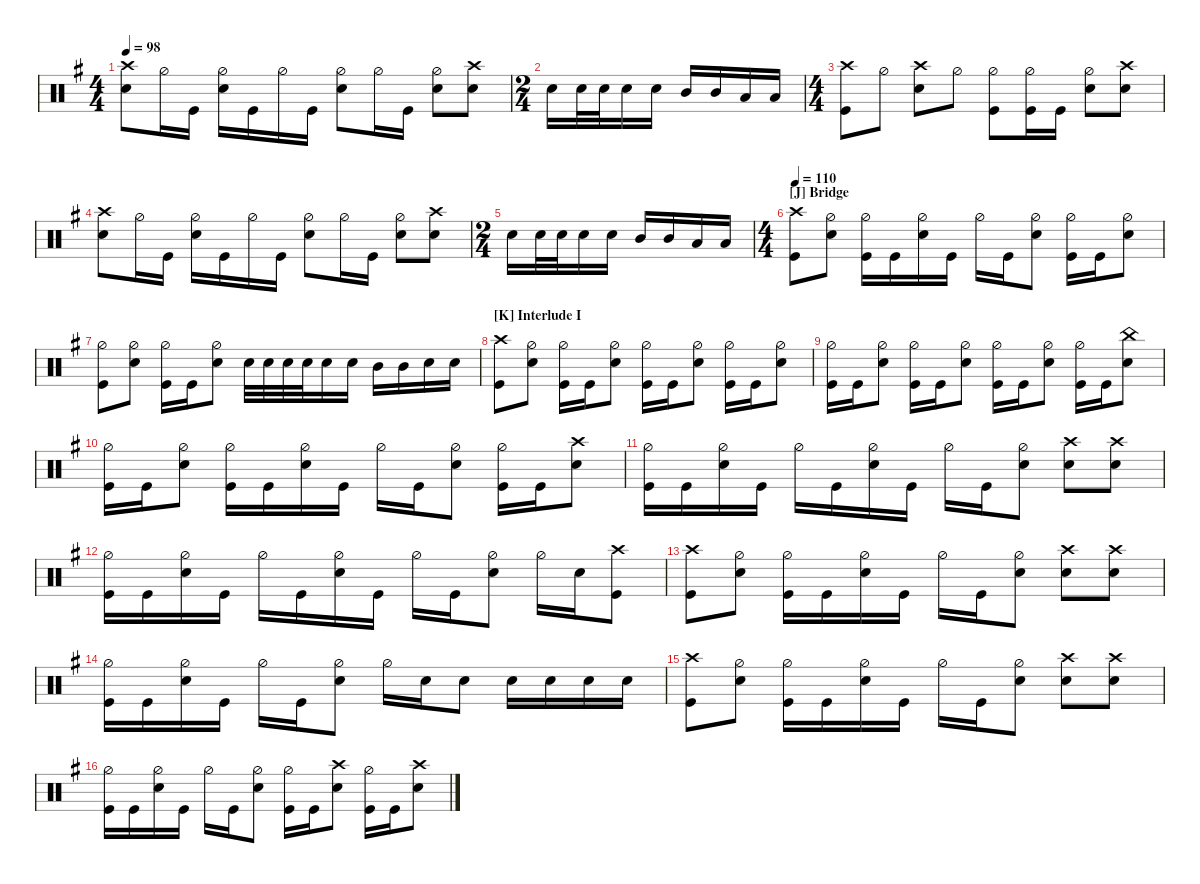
\defaultSystemsLayout 4
\hideDynamics
\bracketExtendMode nobrackets
\otherSystemsTrackNameOrientation horizontal
\track ("Drums" " ") {instrument percussion}
\staff
\articulation defaults
\ts (4 4)
\tempo 98
\clef neutral
\ks eminor
("Snare (hit) 2"{acc forcenatural} "Crash high (hit)"{acc forcenatural}).8{dy f} "Hi-Hat (half)"{acc forcenatural}.16 "Kick (hit)"{acc forcenatural}.16 ("Snare (hit) 2"{acc forcenatural} "Hi-Hat (half)"{acc forcenatural}).16 "Kick (hit)"{acc forcenatural}.16 "Hi-Hat (half)"{acc forcenatural}.16 "Kick (hit)"{acc forcenatural}.16 ("Snare (hit) 2"{acc forcenatural} "Hi-Hat (half)"{acc forcenatural}).8 "Hi-Hat (half)"{acc forcenatural}.16 "Kick (hit)"{acc forcenatural}.16 ("Snare (hit) 2"{acc forcenatural} "Hi-Hat (half)"{acc forcenatural}).8 ("Snare (hit) 2"{acc forcenatural} "Crash high (hit)"{acc forcenatural}).8 |
\ts (2 4)
\beaming (8 2 2)
"Snare (hit) 2"{acc forcenatural}.16 "Snare (hit) 2"{acc forcenatural}.32 "Snare (hit) 2"{acc forcenatural}.32 "Snare (hit) 2"{acc forcenatural}.16 "Snare (hit) 2"{acc forcenatural}.16 "Mid Tom (hit)"{acc forcenatural}.16{dy fff} "Mid Tom (hit)"{acc forcenatural}.16 "Low Tom (hit)"{acc forcenatural}.16 "Low Tom (hit)"{acc forcenatural}.16 |
\ts (4 4)
\beaming (8 2 2 2 2)
("Kick (hit)"{acc forcenatural} "Crash high (hit)"{acc forcenatural}).8{dy f} "Hi-Hat (half)"{acc forcenatural}.8 ("Snare (hit) 2"{acc forcenatural} "Crash high (hit)"{acc forcenatural}).8 "Hi-Hat (half)"{acc forcenatural}.8 ("Hi-Hat (half)"{acc forcenatural} "Kick (hit)"{acc forcenatural}).8 ("Hi-Hat (half)"{acc forcenatural} "Kick (hit)"{acc forcenatural}).16 "Kick (hit)"{acc forcenatural}.16 ("Snare (hit) 2"{acc forcenatural} "Hi-Hat (half)"{acc forcenatural}).8 ("Snare (hit) 2"{acc forcenatural} "Crash high (hit)"{acc forcenatural}).8 |
("Snare (hit) 2"{acc forcenatural} "Crash high (hit)"{acc forcenatural}).8 "Hi-Hat (half)"{acc forcenatural}.16 "Kick (hit)"{acc forcenatural}.16 ("Snare (hit) 2"{acc forcenatural} "Hi-Hat (half)"{acc forcenatural}).16 "Kick (hit)"{acc forcenatural}.16 "Hi-Hat (half)"{acc forcenatural}.16 "Kick (hit)"{acc forcenatural}.16 ("Snare (hit) 2"{acc forcenatural} "Hi-Hat (half)"{acc forcenatural}).8 "Hi-Hat (half)"{acc forcenatural}.16 "Kick (hit)"{acc forcenatural}.16 ("Snare (hit) 2"{acc forcenatural} "Hi-Hat (half)"{acc forcenatural}).8 ("Snare (hit) 2"{acc forcenatural} "Crash high (hit)"{acc forcenatural}).8 |
\ts (2 4)
\beaming (8 2 2)
"Snare (hit) 2"{acc forcenatural}.16 "Snare (hit) 2"{acc forcenatural}.32 "Snare (hit) 2"{acc forcenatural}.32 "Snare (hit) 2"{acc forcenatural}.16 "Snare (hit) 2"{acc forcenatural}.16 "Mid Tom (hit)"{acc forcenatural}.16{dy fff} "Mid Tom (hit)"{acc forcenatural}.16 "Low Tom (hit)"{acc forcenatural}.16 "Low Tom (hit)"{acc forcenatural}.16 |
\ts (4 4)
\beaming (8 2 2 2 2)
\section ("J" "Bridge")
\tempo 110
("Kick (hit)"{acc forcenatural} "Crash high (hit)"{acc forcenatural}).8{dy f} ("Hi-Hat (half)"{acc forcenatural} "Snare (hit) 2"{acc forcenatural}).8 ("Hi-Hat (half)"{acc forcenatural} "Kick (hit)"{acc forcenatural}).16 "Kick (hit)"{acc forcenatural}.16 ("Hi-Hat (half)"{acc forcenatural} "Snare (hit) 2"{acc forcenatural}).16 "Kick (hit)"{acc forcenatural}.16 "Hi-Hat (half)"{acc forcenatural}.16 "Kick (hit)"{acc forcenatural}.16 ("Hi-Hat (half)"{acc forcenatural} "Snare (hit) 2"{acc forcenatural}).8 ("Hi-Hat (half)"{acc forcenatural} "Kick (hit)"{acc forcenatural}).16 "Kick (hit)"{acc forcenatural}.16 ("Hi-Hat (half)"{acc forcenatural} "Snare (hit) 2"{acc forcenatural}).8 |
("Kick (hit)"{acc forcenatural} "Hi-Hat (half)"{acc forcenatural}).8 ("Hi-Hat (half)"{acc forcenatural} "Snare (hit) 2"{acc forcenatural}).8 ("Hi-Hat (half)"{acc forcenatural} "Kick (hit)"{acc forcenatural}).16 "Kick (hit)"{acc forcenatural}.16 ("Hi-Hat (half)"{acc forcenatural} "Snare (hit) 2"{acc forcenatural}).8 "Snare (hit) 2"{acc forcenatural}.32{dy mp} "Snare (hit) 2"{acc forcenatural}.32{dy mf} "Snare (hit) 2"{acc forcenatural}.32 "Snare (hit) 2"{acc forcenatural}.32 "Snare (hit) 2"{acc forcenatural}.16{dy f} "Snare (hit) 2"{acc forcenatural}.16 "Mid Tom (hit)"{acc forcenatural}.16{dy ff} "Mid Tom (hit)"{acc forcenatural}.16 "Snare (hit) 2"{acc forcenatural}.16{dy f} "Snare (hit) 2"{acc forcenatural}.16 |
\section ("K" "Interlude I")
("Kick (hit)"{acc forcenatural} "Crash high (hit)"{acc forcenatural}).8 ("Hi-Hat (half)"{acc forcenatural} "Snare (hit) 2"{acc forcenatural}).8 ("Hi-Hat (half)"{acc forcenatural} "Kick (hit)"{acc forcenatural}).16 "Kick (hit)"{acc forcenatural}.16 ("Hi-Hat (half)"{acc forcenatural} "Snare (hit) 2"{acc forcenatural}).8 ("Hi-Hat (half)"{acc forcenatural} "Kick (hit)"{acc forcenatural}).16 "Kick (hit)"{acc forcenatural}.16 ("Hi-Hat (half)"{acc forcenatural} "Snare (hit) 2"{acc forcenatural}).8 ("Hi-Hat (half)"{acc forcenatural} "Kick (hit)"{acc forcenatural}).16 "Kick (hit)"{acc forcenatural}.16 ("Hi-Hat (half)"{acc forcenatural} "Snare (hit) 2"{acc forcenatural}).8 |
("Hi-Hat (half)"{acc forcenatural} "Kick (hit)"{acc forcenatural}).16 "Kick (hit)"{acc forcenatural}.16 ("Hi-Hat (half)"{acc forcenatural} "Snare (hit) 2"{acc forcenatural}).8 ("Hi-Hat (half)"{acc forcenatural} "Kick (hit)"{acc forcenatural}).16 "Kick (hit)"{acc forcenatural}.16 ("Hi-Hat (half)"{acc forcenatural} "Snare (hit) 2"{acc forcenatural}).8 ("Hi-Hat (half)"{acc forcenatural} "Kick (hit)"{acc forcenatural}).16 "Kick (hit)"{acc forcenatural}.16 ("Hi-Hat (half)"{acc forcenatural} "Snare (hit) 2"{acc forcenatural}).8 ("Hi-Hat (half)"{acc forcenatural} "Kick (hit)"{acc forcenatural}).16 "Kick (hit)"{acc forcenatural}.16 ("Snare (hit) 2"{acc forcenatural} "China (hit)"{acc forcenatural}).8 |
("Hi-Hat (half)"{acc forcenatural} "Kick (hit)"{acc forcenatural}).16 "Kick (hit)"{acc forcenatural}.16 ("Hi-Hat (half)"{acc forcenatural} "Snare (hit) 2"{acc forcenatural}).8 ("Hi-Hat (half)"{acc forcenatural} "Kick (hit)"{acc forcenatural}).16 "Kick (hit)"{acc forcenatural}.16 ("Hi-Hat (half)"{acc forcenatural} "Snare (hit) 2"{acc forcenatural}).16 "Kick (hit)"{acc forcenatural}.16 "Hi-Hat (half)"{acc forcenatural}.16 "Kick (hit)"{acc forcenatural}.16 ("Hi-Hat (half)"{acc forcenatural} "Snare (hit) 2"{acc forcenatural}).8 ("Hi-Hat (half)"{acc forcenatural} "Kick (hit)"{acc forcenatural}).16 "Kick (hit)"{acc forcenatural}.16 ("Snare (hit) 2"{acc forcenatural} "Crash high (hit)"{acc forcenatural}).8 |
("Hi-Hat (half)"{acc forcenatural} "Kick (hit)"{acc forcenatural}).16 "Kick (hit)"{acc forcenatural}.16 ("Hi-Hat (half)"{acc forcenatural} "Snare (hit) 2"{acc forcenatural}).16 "Kick (hit)"{acc forcenatural}.16 "Hi-Hat (half)"{acc forcenatural}.16 "Kick (hit)"{acc forcenatural}.16 ("Hi-Hat (half)"{acc forcenatural} "Snare (hit) 2"{acc forcenatural}).16 "Kick (hit)"{acc forcenatural}.16 "Hi-Hat (half)"{acc forcenatural}.16 "Kick (hit)"{acc forcenatural}.16 ("Hi-Hat (half)"{acc forcenatural} "Snare (hit) 2"{acc forcenatural}).8 ("Snare (hit) 2"{acc forcenatural} "Crash high (hit)"{acc forcenatural}).8 ("Snare (hit) 2"{acc forcenatural} "Crash high (hit)"{acc forcenatural}).8 |
("Hi-Hat (half)"{acc forcenatural} "Kick (hit)"{acc forcenatural}).16 "Kick (hit)"{acc forcenatural}.16 ("Hi-Hat (half)"{acc forcenatural} "Snare (hit) 2"{acc forcenatural}).16 "Kick (hit)"{acc forcenatural}.16 "Hi-Hat (half)"{acc forcenatural}.16 "Kick (hit)"{acc forcenatural}.16 ("Hi-Hat (half)"{acc forcenatural} "Snare (hit) 2"{acc forcenatural}).16 "Kick (hit)"{acc forcenatural}.16 "Hi-Hat (half)"{acc forcenatural}.16 "Kick (hit)"{acc forcenatural}.16 ("Hi-Hat (half)"{acc forcenatural} "Snare (hit) 2"{acc forcenatural}).8 "Hi-Hat (half)"{acc forcenatural}.16 "Snare (hit) 2"{acc forcenatural}.16 ("Kick (hit)"{acc forcenatural} "Crash high (hit)"{acc forcenatural}).8 |
("Kick (hit)"{acc forcenatural} "Crash high (hit)"{acc forcenatural}).8 ("Hi-Hat (half)"{acc forcenatural} "Snare (hit) 2"{acc forcenatural}).8 ("Kick (hit)"{acc forcenatural} "Hi-Hat (half)"{acc forcenatural}).16 "Kick (hit)"{acc forcenatural}.16 ("Hi-Hat (half)"{acc forcenatural} "Snare (hit) 2"{acc forcenatural}).16 "Kick (hit)"{acc forcenatural}.16 "Hi-Hat (half)"{acc forcenatural}.16 "Kick (hit)"{acc forcenatural}.16 ("Hi-Hat (half)"{acc forcenatural} "Snare (hit) 2"{acc forcenatural}).8 ("Snare (hit) 2"{acc forcenatural} "Crash high (hit)"{acc forcenatural}).8 ("Snare (hit) 2"{acc forcenatural} "Crash high (hit)"{acc forcenatural}).8 |
("Hi-Hat (half)"{acc forcenatural} "Kick (hit)"{acc forcenatural}).16 "Kick (hit)"{acc forcenatural}.16 ("Hi-Hat (half)"{acc forcenatural} "Snare (hit) 2"{acc forcenatural}).16 "Kick (hit)"{acc forcenatural}.16 "Hi-Hat (half)"{acc forcenatural}.16 "Kick (hit)"{acc forcenatural}.16 ("Hi-Hat (half)"{acc forcenatural} "Snare (hit) 2"{acc forcenatural}).8 "Hi-Hat (half)"{acc forcenatural}.16 "Snare (hit) 2"{acc forcenatural}.16 "Snare (hit) 2"{acc forcenatural}.8 "Snare (hit) 2"{acc forcenatural}.16 "Snare (hit) 2"{acc forcenatural}.16 "Snare (hit) 2"{acc forcenatural}.16 "Snare (hit) 2"{acc forcenatural}.16 |
("Kick (hit)"{acc forcenatural} "Crash high (hit)"{acc forcenatural}).8 ("Hi-Hat (half)"{acc forcenatural} "Snare (hit) 2"{acc forcenatural}).8 ("Kick (hit)"{acc forcenatural} "Hi-Hat (half)"{acc forcenatural}).16 "Kick (hit)"{acc forcenatural}.16 ("Hi-Hat (half)"{acc forcenatural} "Snare (hit) 2"{acc forcenatural}).16 "Kick (hit)"{acc forcenatural}.16 "Hi-Hat (half)"{acc forcenatural}.16 "Kick (hit)"{acc forcenatural}.16 ("Hi-Hat (half)"{acc forcenatural} "Snare (hit) 2"{acc forcenatural}).8 ("Snare (hit) 2"{acc forcenatural} "Crash high (hit)"{acc forcenatural}).8 ("Snare (hit) 2"{acc forcenatural} "Crash high (hit)"{acc forcenatural}).8 |
("Hi-Hat (half)"{acc forcenatural} "Kick (hit)"{acc forcenatural}).16 "Kick (hit)"{acc forcenatural}.16 ("Hi-Hat (half)"{acc forcenatural} "Snare (hit) 2"{acc forcenatural}).16 "Kick (hit)"{acc forcenatural}.16 "Hi-Hat (half)"{acc forcenatural}.16 "Kick (hit)"{acc forcenatural}.16 ("Hi-Hat (half)"{acc forcenatural} "Snare (hit) 2"{acc forcenatural}).8 ("Hi-Hat (half)"{acc forcenatural} "Kick (hit)"{acc forcenatural}).16 "Kick (hit)"{acc forcenatural}.16 ("Snare (hit) 2"{acc forcenatural} "Crash high (hit)"{acc forcenatural}).8 ("Hi-Hat (half)"{acc forcenatural} "Kick (hit)"{acc forcenatural}).16 "Kick (hit)"{acc forcenatural}.16 ("Snare (hit) 2"{acc forcenatural} "Crash high (hit)"{acc forcenatural}).8
